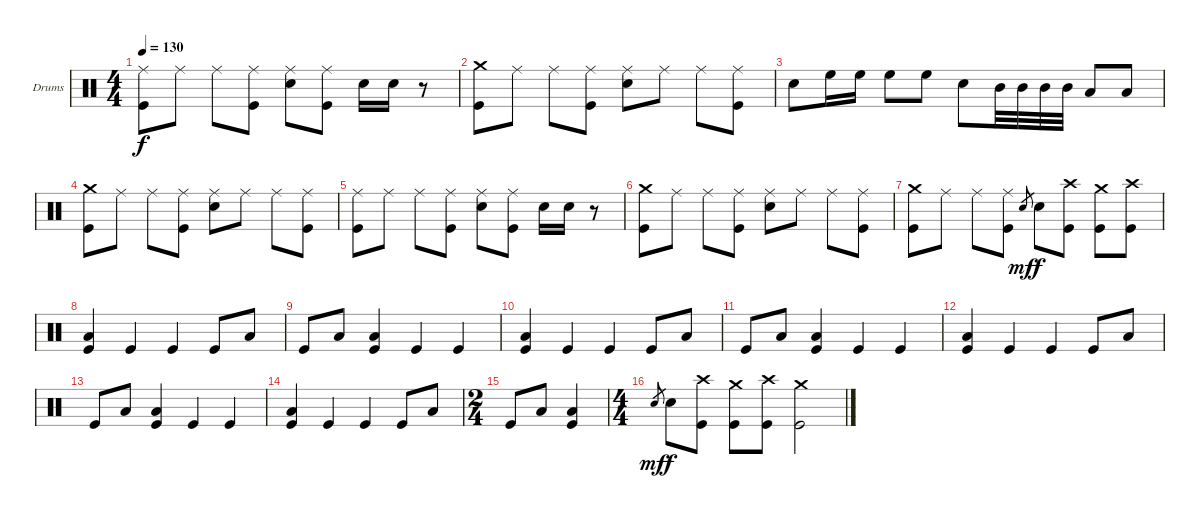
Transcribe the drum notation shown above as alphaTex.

\bracketExtendMode groupsimilarinstruments
\firstSystemTrackNameOrientation horizontal
\otherSystemsTrackNameOrientation horizontal
\track ("Nick Menza" "Drums") {instrument percussion}
\staff {score}
\articulation defaults
\ts (4 4)
\tempo 130
\clef neutral
\ks c
("Ride (middle)" "Kick (hit)").8{dy f} "Ride (middle)".8 "Ride (middle)".8 ("Ride (middle)" "Kick (hit)").8 ("Ride (middle)" "Snare (hit) 2").8 ("Ride (middle)" "Kick (hit)").8 "Snare (hit) 2".16 "Snare (hit) 2".16 r.8 |
("Crash medium (hit)" "Kick (hit)").8 "Ride (middle)".8 "Ride (middle)".8 ("Ride (middle)" "Kick (hit)").8 ("Ride (middle)" "Snare (hit) 2").8 "Ride (middle)".8 "Ride (middle)".8 ("Ride (middle)" "Kick (hit)").8 |
"Snare (hit) 2".8 "High Floor Tom (hit)".16 "High Floor Tom (hit)".16 "High Floor Tom (hit)".8 "High Floor Tom (hit)".8 "Snare (hit) 2".8 "Mid Tom (hit)".32 "Mid Tom (hit)".32 "Mid Tom (hit)".32 "Mid Tom (hit)".32 "Low Tom (hit)".8 "Low Tom (hit)".8 |
("Crash medium (hit)" "Kick (hit)").8 "Ride (middle)".8 "Ride (middle)".8 ("Ride (middle)" "Kick (hit)").8 ("Ride (middle)" "Snare (hit) 2").8 "Ride (middle)".8 "Ride (middle)".8 ("Ride (middle)" "Kick (hit)").8 |
("Ride (middle)" "Kick (hit)").8 "Ride (middle)".8 "Ride (middle)".8 ("Ride (middle)" "Kick (hit)").8 ("Ride (middle)" "Snare (hit) 2").8 ("Ride (middle)" "Kick (hit)").8 "Snare (hit) 2".16 "Snare (hit) 2".16 r.8 |
("Crash medium (hit)" "Kick (hit)").8 "Ride (middle)".8 "Ride (middle)".8 ("Ride (middle)" "Kick (hit)").8 ("Ride (middle)" "Snare (hit) 2").8 "Ride (middle)".8 "Ride (middle)".8 ("Ride (middle)" "Kick (hit)").8 |
("Crash medium (hit)" "Kick (hit)").8 "Ride (middle)".8 "Ride (middle)".8 ("Ride (middle)" "Kick (hit)").8 "Snare (hit) 2".8{gr dy mf} "Snare (hit) 2".8{dy f} ("Crash high (hit)" "Kick (hit)").8 ("Crash medium (hit)" "Kick (hit)").8 ("Crash high (hit)" "Kick (hit)").8 |
("Low Tom (hit)" "Kick (hit)").4 "Kick (hit)".4 "Kick (hit)".4 "Kick (hit)".8 "Low Tom (hit)".8 |
"Kick (hit)".8 "Low Tom (hit)".8 ("Low Tom (hit)" "Kick (hit)").4 "Kick (hit)".4 "Kick (hit)".4 |
("Low Tom (hit)" "Kick (hit)").4 "Kick (hit)".4 "Kick (hit)".4 "Kick (hit)".8 "Low Tom (hit)".8 |
"Kick (hit)".8 "Low Tom (hit)".8 ("Low Tom (hit)" "Kick (hit)").4 "Kick (hit)".4 "Kick (hit)".4 |
("Low Tom (hit)" "Kick (hit)").4 "Kick (hit)".4 "Kick (hit)".4 "Kick (hit)".8 "Low Tom (hit)".8 |
"Kick (hit)".8 "Low Tom (hit)".8 ("Low Tom (hit)" "Kick (hit)").4 "Kick (hit)".4 "Kick (hit)".4 |
("Low Tom (hit)" "Kick (hit)").4 "Kick (hit)".4 "Kick (hit)".4 "Kick (hit)".8 "Low Tom (hit)".8 |
\ts (2 4)
"Kick (hit)".8 "Low Tom (hit)".8 ("Low Tom (hit)" "Kick (hit)").4 |
\ts (4 4)
"Snare (hit) 2".8{gr dy mf} "Snare (hit) 2".8{dy f} ("Crash high (hit)" "Kick (hit)").8 ("Crash medium (hit)" "Kick (hit)").8 ("Crash high (hit)" "Kick (hit)").8 ("Crash medium (hit)" "Kick (hit)").2
